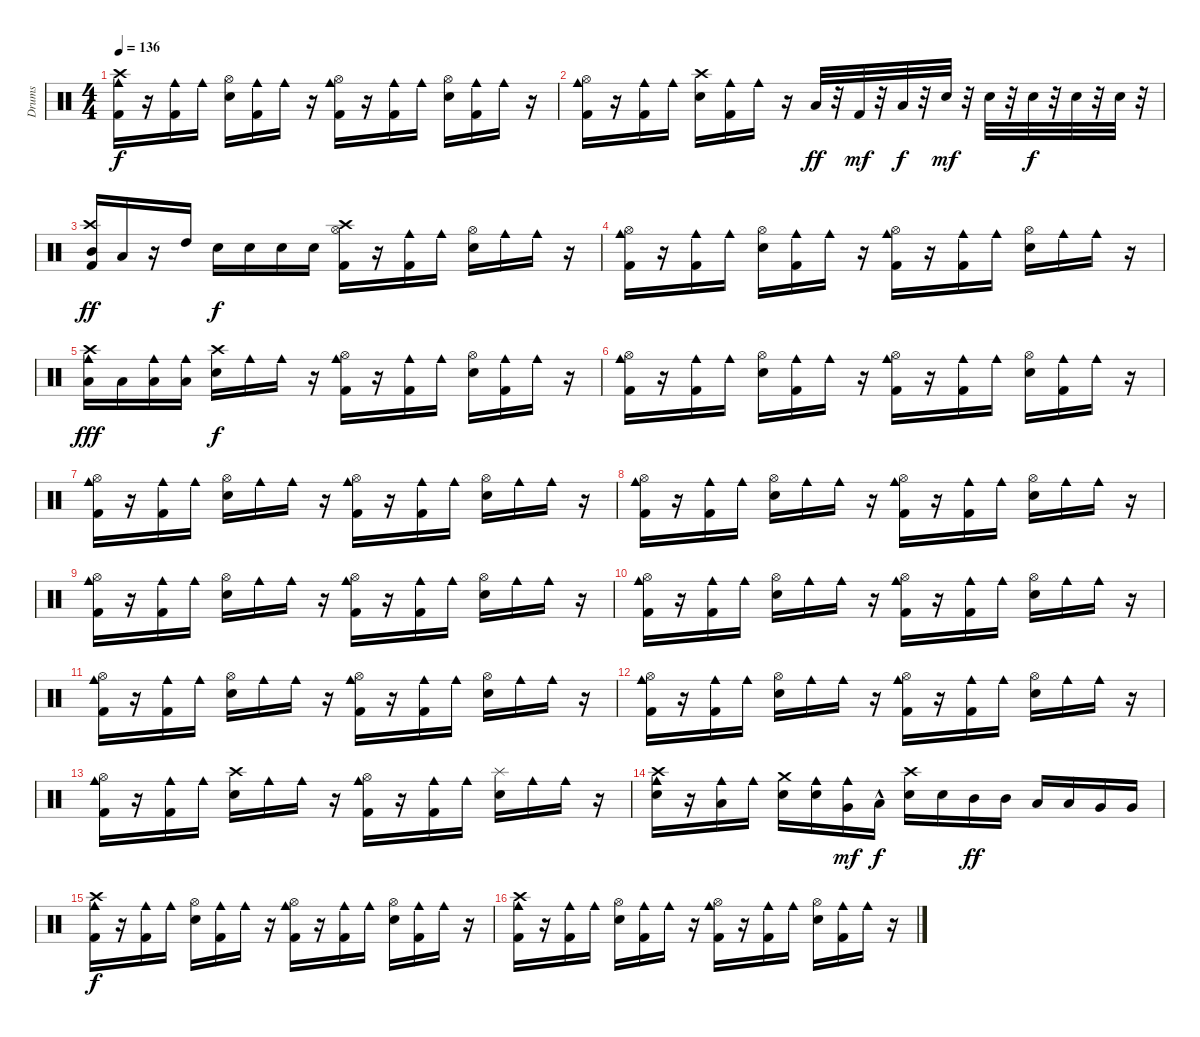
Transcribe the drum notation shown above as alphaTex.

\track ("Drums" "Drums") {instrument percussion}
\staff {score}
\articulation defaults
\ts (4 4)
\tempo 136
\clef neutral
\ks c
("Cowbell medium (hit)" "Kick (hit) 2" "Crash high (hit)").16{dy f} r.16 ("Cowbell medium (hit)" "Kick (hit) 2").16 "Cowbell medium (hit)".16 ("Metronome (bell)" "Hi-Hat (open)").16 ("Cowbell medium (hit)" "Kick (hit) 2").16 "Cowbell medium (hit)".16 r.16 ("Kick (hit) 2" "Cowbell medium (hit)" "Hi-Hat (open)").16 r.16 ("Cowbell medium (hit)" "Kick (hit) 2").16 "Cowbell medium (hit)".16 ("Metronome (bell)" "Hi-Hat (open)").16 ("Cowbell medium (hit)" "Kick (hit) 2").16 "Cowbell medium (hit)".16 r.16 |
("Kick (hit) 2" "Cowbell medium (hit)" "Hi-Hat (open)").16 r.16 ("Kick (hit) 2" "Cowbell medium (hit)").16 "Cowbell medium (hit)".16 ("Metronome (bell)" "Crash high (hit)").16 ("Cowbell medium (hit)" "Kick (hit) 2").16 "Cowbell medium (hit)".16 r.16 "Low Tom (hit)".32{dy ff} r.32 "Kick (hit) 2".32{dy mf} r.32 "Low Floor Tom (hit)".32{dy f} r.32 "Metronome (bell)".32{dy mf} r.32 "Metronome (bell)".32 r.32 "Metronome (bell)".32{dy f} r.32 "Metronome (bell)".32 r.32 "Metronome (bell)".32 r.32 |
("Mid Tom (hit)" "Kick (hit) 2" "Crash high (hit)").16{dy ff} "Low Tom (hit)".16 r.16 "High Tom (hit)".16 "Metronome (bell)".16{dy f} "Metronome (bell)".16 "Metronome (bell)".16 "Metronome (bell)".16 ("Hi-Hat (open)" "Kick (hit) 2" "Crash high (hit)").16 r.16 ("Cowbell medium (hit)" "Kick (hit) 2").16 "Cowbell medium (hit)".16 ("Metronome (bell)" "Hi-Hat (open)").16 "Cowbell medium (hit)".16 "Cowbell medium (hit)".16 r.16 |
("Kick (hit) 2" "Cowbell medium (hit)" "Hi-Hat (open)").16 r.16 ("Kick (hit) 2" "Cowbell medium (hit)").16 "Cowbell medium (hit)".16 ("Metronome (bell)" "Hi-Hat (open)").16 ("Cowbell medium (hit)" "Kick (hit) 2").16 "Cowbell medium (hit)".16 r.16 ("Kick (hit) 2" "Cowbell medium (hit)" "Hi-Hat (open)").16 r.16 ("Kick (hit) 2" "Cowbell medium (hit)").16 "Cowbell medium (hit)".16 ("Metronome (bell)" "Hi-Hat (open)").16 "Cowbell medium (hit)".16 "Cowbell medium (hit)".16 r.16 |
("Cowbell medium (hit)" "Low Tom (hit)" "Crash high (hit)").16{dy fff} "Low Tom (hit)".16 ("Cowbell medium (hit)" "Low Tom (hit)").16 ("Cowbell medium (hit)" "Low Tom (hit)").16 ("Metronome (bell)" "Crash high (hit)").16{dy f} "Cowbell medium (hit)".16 "Cowbell medium (hit)".16 r.16 ("Kick (hit) 2" "Cowbell medium (hit)" "Hi-Hat (open)").16 r.16 ("Cowbell medium (hit)" "Kick (hit) 2").16 "Cowbell medium (hit)".16 ("Metronome (bell)" "Hi-Hat (open)").16 ("Cowbell medium (hit)" "Kick (hit) 2").16 "Cowbell medium (hit)".16 r.16 |
("Kick (hit) 2" "Cowbell medium (hit)" "Hi-Hat (open)").16 r.16 ("Kick (hit) 2" "Cowbell medium (hit)").16 "Cowbell medium (hit)".16 ("Metronome (bell)" "Hi-Hat (open)").16 ("Cowbell medium (hit)" "Kick (hit) 2").16 "Cowbell medium (hit)".16 r.16 ("Cowbell medium (hit)" "Kick (hit) 2" "Hi-Hat (open)").16 r.16 ("Cowbell medium (hit)" "Kick (hit) 2").16 "Cowbell medium (hit)".16 ("Metronome (bell)" "Hi-Hat (open)").16 ("Cowbell medium (hit)" "Kick (hit) 2").16 "Cowbell medium (hit)".16 r.16 |
("Kick (hit) 2" "Cowbell medium (hit)" "Hi-Hat (open)").16 r.16 ("Kick (hit) 2" "Cowbell medium (hit)").16 "Cowbell medium (hit)".16 ("Metronome (bell)" "Hi-Hat (open)").16 "Cowbell medium (hit)".16 "Cowbell medium (hit)".16 r.16 ("Cowbell medium (hit)" "Kick (hit) 2" "Hi-Hat (open)").16 r.16 ("Cowbell medium (hit)" "Kick (hit) 2").16 "Cowbell medium (hit)".16 ("Metronome (bell)" "Hi-Hat (open)").16 "Cowbell medium (hit)".16 "Cowbell medium (hit)".16 r.16 |
("Kick (hit) 2" "Cowbell medium (hit)" "Hi-Hat (open)").16 r.16 ("Kick (hit) 2" "Cowbell medium (hit)").16 "Cowbell medium (hit)".16 ("Metronome (bell)" "Hi-Hat (open)").16 "Cowbell medium (hit)".16 "Cowbell medium (hit)".16 r.16 ("Cowbell medium (hit)" "Kick (hit) 2" "Hi-Hat (open)").16 r.16 ("Cowbell medium (hit)" "Kick (hit) 2").16 "Cowbell medium (hit)".16 ("Metronome (bell)" "Hi-Hat (open)").16 "Cowbell medium (hit)".16 "Cowbell medium (hit)".16 r.16 |
("Kick (hit) 2" "Cowbell medium (hit)" "Hi-Hat (open)").16 r.16 ("Kick (hit) 2" "Cowbell medium (hit)").16 "Cowbell medium (hit)".16 ("Metronome (bell)" "Hi-Hat (open)").16 "Cowbell medium (hit)".16 "Cowbell medium (hit)".16 r.16 ("Cowbell medium (hit)" "Kick (hit) 2" "Hi-Hat (open)").16 r.16 ("Cowbell medium (hit)" "Kick (hit) 2").16 "Cowbell medium (hit)".16 ("Metronome (bell)" "Hi-Hat (open)").16 "Cowbell medium (hit)".16 "Cowbell medium (hit)".16 r.16 |
("Kick (hit) 2" "Cowbell medium (hit)" "Hi-Hat (open)").16 r.16 ("Kick (hit) 2" "Cowbell medium (hit)").16 "Cowbell medium (hit)".16 ("Metronome (bell)" "Hi-Hat (open)").16 "Cowbell medium (hit)".16 "Cowbell medium (hit)".16 r.16 ("Cowbell medium (hit)" "Kick (hit) 2" "Hi-Hat (open)").16 r.16 ("Cowbell medium (hit)" "Kick (hit) 2").16 "Cowbell medium (hit)".16 ("Metronome (bell)" "Hi-Hat (open)").16 "Cowbell medium (hit)".16 "Cowbell medium (hit)".16 r.16 |
("Kick (hit) 2" "Cowbell medium (hit)" "Hi-Hat (open)").16 r.16 ("Kick (hit) 2" "Cowbell medium (hit)").16 "Cowbell medium (hit)".16 ("Metronome (bell)" "Hi-Hat (open)").16 "Cowbell medium (hit)".16 "Cowbell medium (hit)".16 r.16 ("Cowbell medium (hit)" "Kick (hit) 2" "Hi-Hat (open)").16 r.16 ("Cowbell medium (hit)" "Kick (hit) 2").16 "Cowbell medium (hit)".16 ("Metronome (bell)" "Hi-Hat (open)").16 "Cowbell medium (hit)".16 "Cowbell medium (hit)".16 r.16 |
("Kick (hit) 2" "Cowbell medium (hit)" "Hi-Hat (open)").16 r.16 ("Kick (hit) 2" "Cowbell medium (hit)").16 "Cowbell medium (hit)".16 ("Metronome (bell)" "Hi-Hat (open)").16 "Cowbell medium (hit)".16 "Cowbell medium (hit)".16 r.16 ("Cowbell medium (hit)" "Kick (hit) 2" "Hi-Hat (open)").16 r.16 ("Cowbell medium (hit)" "Kick (hit) 2").16 "Cowbell medium (hit)".16 ("Metronome (bell)" "Hi-Hat (open)").16 "Cowbell medium (hit)".16 "Cowbell medium (hit)".16 r.16 |
("Kick (hit) 2" "Cowbell medium (hit)" "Hi-Hat (open)").16 r.16 ("Kick (hit) 2" "Cowbell medium (hit)").16 "Cowbell medium (hit)".16 ("Metronome (bell)" "Crash high (hit)").16 "Cowbell medium (hit)".16 "Cowbell medium (hit)".16 r.16 ("Cowbell medium (hit)" "Kick (hit) 2" "Hi-Hat (open)").16 r.16 ("Cowbell medium (hit)" "Kick (hit) 2").16 "Cowbell medium (hit)".16 ("Metronome (bell)" "Splash (hit)").16 "Cowbell medium (hit)".16 "Cowbell medium (hit)".16 r.16 |
("Cowbell medium (hit)" "Metronome (bell)" "Crash high (hit)").16 r.16 ("Cowbell medium (hit)" "Low Tom (hit)").16 "Cowbell medium (hit)".16 ("Metronome (bell)" "Crash medium (hit)").16 ("Cowbell medium (hit)" "Metronome (bell)").16 ("Cowbell medium (hit)" "Very Low Tom (hit)").16{dy mf} "Low Floor Tom (hit)"{hac}.16{dy f} ("Metronome (bell)" "Crash high (hit)").16 "Metronome (bell)".16 "Mid Tom (hit)".16{dy ff} "Mid Tom (hit)".16 "Low Tom (hit)".16 "Low Tom (hit)".16 "Very Low Tom (hit)".16 "Very Low Tom (hit)".16 |
("Kick (hit) 2" "Cowbell medium (hit)" "Crash high (hit)").16{dy f} r.16 ("Kick (hit) 2" "Cowbell medium (hit)").16 "Cowbell medium (hit)".16 ("Metronome (bell)" "Hi-Hat (open)").16 ("Cowbell medium (hit)" "Kick (hit) 2").16 "Cowbell medium (hit)".16 r.16 ("Cowbell medium (hit)" "Kick (hit) 2" "Hi-Hat (open)").16 r.16 ("Cowbell medium (hit)" "Kick (hit) 2").16 "Cowbell medium (hit)".16 ("Metronome (bell)" "Hi-Hat (open)").16 ("Cowbell medium (hit)" "Kick (hit) 2").16 "Cowbell medium (hit)".16 r.16 |
("Kick (hit) 2" "Cowbell medium (hit)" "Crash high (hit)").16 r.16 ("Kick (hit) 2" "Cowbell medium (hit)").16 "Cowbell medium (hit)".16 ("Metronome (bell)" "Hi-Hat (open)").16 ("Cowbell medium (hit)" "Kick (hit) 2").16 "Cowbell medium (hit)".16 r.16 ("Cowbell medium (hit)" "Kick (hit) 2" "Hi-Hat (open)").16 r.16 ("Cowbell medium (hit)" "Kick (hit) 2").16 "Cowbell medium (hit)".16 ("Metronome (bell)" "Hi-Hat (open)").16 ("Cowbell medium (hit)" "Kick (hit) 2").16 "Cowbell medium (hit)".16 r.16
